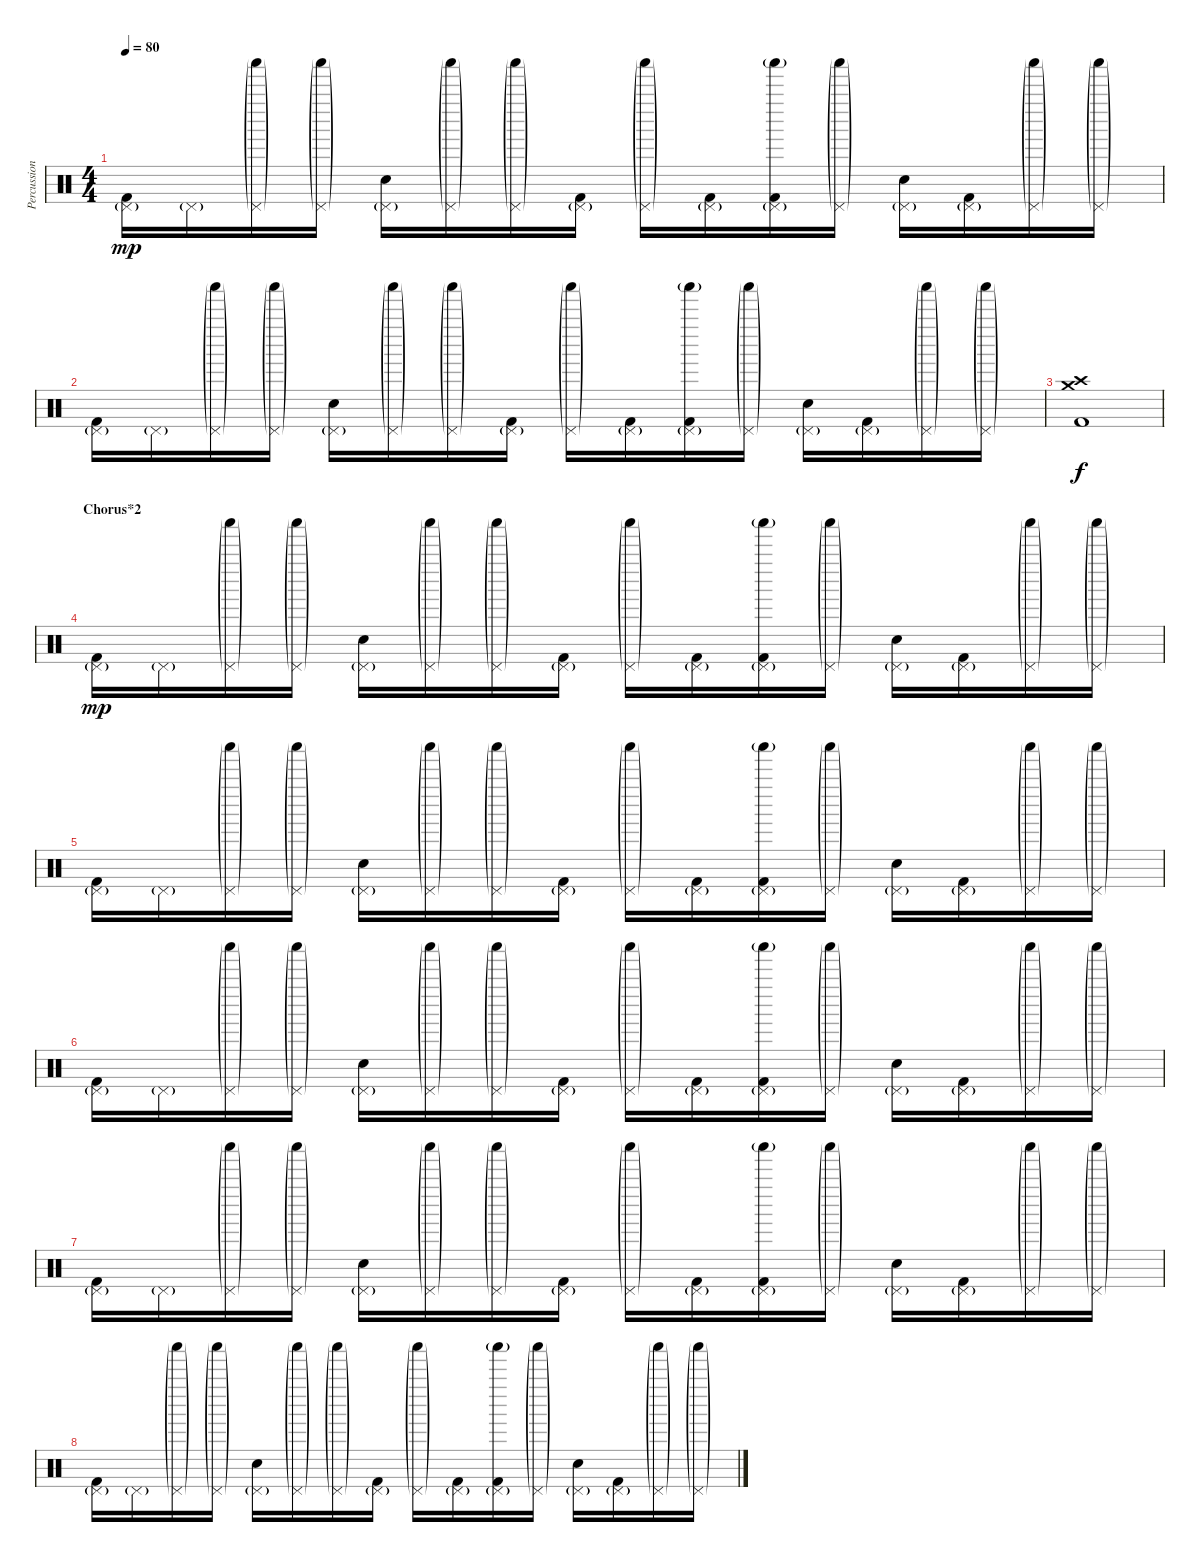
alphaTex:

\track ("Percussion" "Percussion") {instrument percussion}
\staff {score}
\articulation defaults
\ts (4 4)
\tempo 80
\clef neutral
\ks c
("Pedal Hi-Hat (hit)"{g} "Kick (hit) 2").16{dy mp} "Pedal Hi-Hat (hit)"{g}.16 ("Pedal Hi-Hat (hit)"{g} "Shaker (hit)"{g}).16 ("Pedal Hi-Hat (hit)"{g} "Shaker (hit)"{g}).16 ("Pedal Hi-Hat (hit)"{g} "Electric Snare (hit)").16 ("Pedal Hi-Hat (hit)"{g} "Shaker (hit)"{g}).16 ("Pedal Hi-Hat (hit)"{g} "Shaker (hit)"{g}).16 ("Pedal Hi-Hat (hit)"{g} "Kick (hit) 2").16 ("Pedal Hi-Hat (hit)"{g} "Shaker (hit)"{g}).16 ("Pedal Hi-Hat (hit)"{g} "Kick (hit) 2").16 ("Pedal Hi-Hat (hit)"{g} "Shaker (hit)"{g} "Kick (hit) 2").16 ("Pedal Hi-Hat (hit)"{g} "Shaker (hit)"{g}).16 ("Pedal Hi-Hat (hit)"{g} "Electric Snare (hit)").16 ("Pedal Hi-Hat (hit)"{g} "Kick (hit) 2").16 ("Pedal Hi-Hat (hit)"{g} "Shaker (hit)"{g}).16 ("Pedal Hi-Hat (hit)"{g} "Shaker (hit)"{g}).16 |
("Pedal Hi-Hat (hit)"{g} "Kick (hit) 2").16 "Pedal Hi-Hat (hit)"{g}.16 ("Pedal Hi-Hat (hit)"{g} "Shaker (hit)"{g}).16 ("Pedal Hi-Hat (hit)"{g} "Shaker (hit)"{g}).16 ("Pedal Hi-Hat (hit)"{g} "Electric Snare (hit)").16 ("Pedal Hi-Hat (hit)"{g} "Shaker (hit)"{g}).16 ("Pedal Hi-Hat (hit)"{g} "Shaker (hit)"{g}).16 ("Pedal Hi-Hat (hit)"{g} "Kick (hit) 2").16 ("Pedal Hi-Hat (hit)"{g} "Shaker (hit)"{g}).16 ("Pedal Hi-Hat (hit)"{g} "Kick (hit) 2").16 ("Pedal Hi-Hat (hit)"{g} "Shaker (hit)"{g} "Kick (hit) 2").16 ("Pedal Hi-Hat (hit)"{g} "Shaker (hit)"{g}).16 ("Pedal Hi-Hat (hit)"{g} "Electric Snare (hit)").16 ("Pedal Hi-Hat (hit)"{g} "Kick (hit) 2").16 ("Pedal Hi-Hat (hit)"{g} "Shaker (hit)"{g}).16 ("Pedal Hi-Hat (hit)"{g} "Shaker (hit)"{g}).16 |
("Crash high (hit)" "Crash medium (hit)" "Kick (hit) 2").1{dy f} |
\section ("" "Chorus*2")
("Pedal Hi-Hat (hit)"{g} "Kick (hit) 2").16{dy mp} "Pedal Hi-Hat (hit)"{g}.16 ("Pedal Hi-Hat (hit)"{g} "Shaker (hit)"{g}).16 ("Pedal Hi-Hat (hit)"{g} "Shaker (hit)"{g}).16 ("Pedal Hi-Hat (hit)"{g} "Electric Snare (hit)").16 ("Pedal Hi-Hat (hit)"{g} "Shaker (hit)"{g}).16 ("Pedal Hi-Hat (hit)"{g} "Shaker (hit)"{g}).16 ("Pedal Hi-Hat (hit)"{g} "Kick (hit) 2").16 ("Pedal Hi-Hat (hit)"{g} "Shaker (hit)"{g}).16 ("Pedal Hi-Hat (hit)"{g} "Kick (hit) 2").16 ("Pedal Hi-Hat (hit)"{g} "Shaker (hit)"{g} "Kick (hit) 2").16 ("Pedal Hi-Hat (hit)"{g} "Shaker (hit)"{g}).16 ("Pedal Hi-Hat (hit)"{g} "Electric Snare (hit)").16 ("Pedal Hi-Hat (hit)"{g} "Kick (hit) 2").16 ("Pedal Hi-Hat (hit)"{g} "Shaker (hit)"{g}).16 ("Pedal Hi-Hat (hit)"{g} "Shaker (hit)"{g}).16 |
("Pedal Hi-Hat (hit)"{g} "Kick (hit) 2").16 "Pedal Hi-Hat (hit)"{g}.16 ("Pedal Hi-Hat (hit)"{g} "Shaker (hit)"{g}).16 ("Pedal Hi-Hat (hit)"{g} "Shaker (hit)"{g}).16 ("Pedal Hi-Hat (hit)"{g} "Electric Snare (hit)").16 ("Pedal Hi-Hat (hit)"{g} "Shaker (hit)"{g}).16 ("Pedal Hi-Hat (hit)"{g} "Shaker (hit)"{g}).16 ("Pedal Hi-Hat (hit)"{g} "Kick (hit) 2").16 ("Pedal Hi-Hat (hit)"{g} "Shaker (hit)"{g}).16 ("Pedal Hi-Hat (hit)"{g} "Kick (hit) 2").16 ("Pedal Hi-Hat (hit)"{g} "Shaker (hit)"{g} "Kick (hit) 2").16 ("Pedal Hi-Hat (hit)"{g} "Shaker (hit)"{g}).16 ("Pedal Hi-Hat (hit)"{g} "Electric Snare (hit)").16 ("Pedal Hi-Hat (hit)"{g} "Kick (hit) 2").16 ("Pedal Hi-Hat (hit)"{g} "Shaker (hit)"{g}).16 ("Pedal Hi-Hat (hit)"{g} "Shaker (hit)"{g}).16 |
("Pedal Hi-Hat (hit)"{g} "Kick (hit) 2").16 "Pedal Hi-Hat (hit)"{g}.16 ("Pedal Hi-Hat (hit)"{g} "Shaker (hit)"{g}).16 ("Pedal Hi-Hat (hit)"{g} "Shaker (hit)"{g}).16 ("Pedal Hi-Hat (hit)"{g} "Electric Snare (hit)").16 ("Pedal Hi-Hat (hit)"{g} "Shaker (hit)"{g}).16 ("Pedal Hi-Hat (hit)"{g} "Shaker (hit)"{g}).16 ("Pedal Hi-Hat (hit)"{g} "Kick (hit) 2").16 ("Pedal Hi-Hat (hit)"{g} "Shaker (hit)"{g}).16 ("Pedal Hi-Hat (hit)"{g} "Kick (hit) 2").16 ("Pedal Hi-Hat (hit)"{g} "Shaker (hit)"{g} "Kick (hit) 2").16 ("Pedal Hi-Hat (hit)"{g} "Shaker (hit)"{g}).16 ("Pedal Hi-Hat (hit)"{g} "Electric Snare (hit)").16 ("Pedal Hi-Hat (hit)"{g} "Kick (hit) 2").16 ("Pedal Hi-Hat (hit)"{g} "Shaker (hit)"{g}).16 ("Pedal Hi-Hat (hit)"{g} "Shaker (hit)"{g}).16 |
("Pedal Hi-Hat (hit)"{g} "Kick (hit) 2").16 "Pedal Hi-Hat (hit)"{g}.16 ("Pedal Hi-Hat (hit)"{g} "Shaker (hit)"{g}).16 ("Pedal Hi-Hat (hit)"{g} "Shaker (hit)"{g}).16 ("Pedal Hi-Hat (hit)"{g} "Electric Snare (hit)").16 ("Pedal Hi-Hat (hit)"{g} "Shaker (hit)"{g}).16 ("Pedal Hi-Hat (hit)"{g} "Shaker (hit)"{g}).16 ("Pedal Hi-Hat (hit)"{g} "Kick (hit) 2").16 ("Pedal Hi-Hat (hit)"{g} "Shaker (hit)"{g}).16 ("Pedal Hi-Hat (hit)"{g} "Kick (hit) 2").16 ("Pedal Hi-Hat (hit)"{g} "Shaker (hit)"{g} "Kick (hit) 2").16 ("Pedal Hi-Hat (hit)"{g} "Shaker (hit)"{g}).16 ("Pedal Hi-Hat (hit)"{g} "Electric Snare (hit)").16 ("Pedal Hi-Hat (hit)"{g} "Kick (hit) 2").16 ("Pedal Hi-Hat (hit)"{g} "Shaker (hit)"{g}).16 ("Pedal Hi-Hat (hit)"{g} "Shaker (hit)"{g}).16 |
("Pedal Hi-Hat (hit)"{g} "Kick (hit) 2").16 "Pedal Hi-Hat (hit)"{g}.16 ("Pedal Hi-Hat (hit)"{g} "Shaker (hit)"{g}).16 ("Pedal Hi-Hat (hit)"{g} "Shaker (hit)"{g}).16 ("Pedal Hi-Hat (hit)"{g} "Electric Snare (hit)").16 ("Pedal Hi-Hat (hit)"{g} "Shaker (hit)"{g}).16 ("Pedal Hi-Hat (hit)"{g} "Shaker (hit)"{g}).16 ("Pedal Hi-Hat (hit)"{g} "Kick (hit) 2").16 ("Pedal Hi-Hat (hit)"{g} "Shaker (hit)"{g}).16 ("Pedal Hi-Hat (hit)"{g} "Kick (hit) 2").16 ("Pedal Hi-Hat (hit)"{g} "Shaker (hit)"{g} "Kick (hit) 2").16 ("Pedal Hi-Hat (hit)"{g} "Shaker (hit)"{g}).16 ("Pedal Hi-Hat (hit)"{g} "Electric Snare (hit)").16 ("Pedal Hi-Hat (hit)"{g} "Kick (hit) 2").16 ("Pedal Hi-Hat (hit)"{g} "Shaker (hit)"{g}).16 ("Pedal Hi-Hat (hit)"{g} "Shaker (hit)"{g}).16
